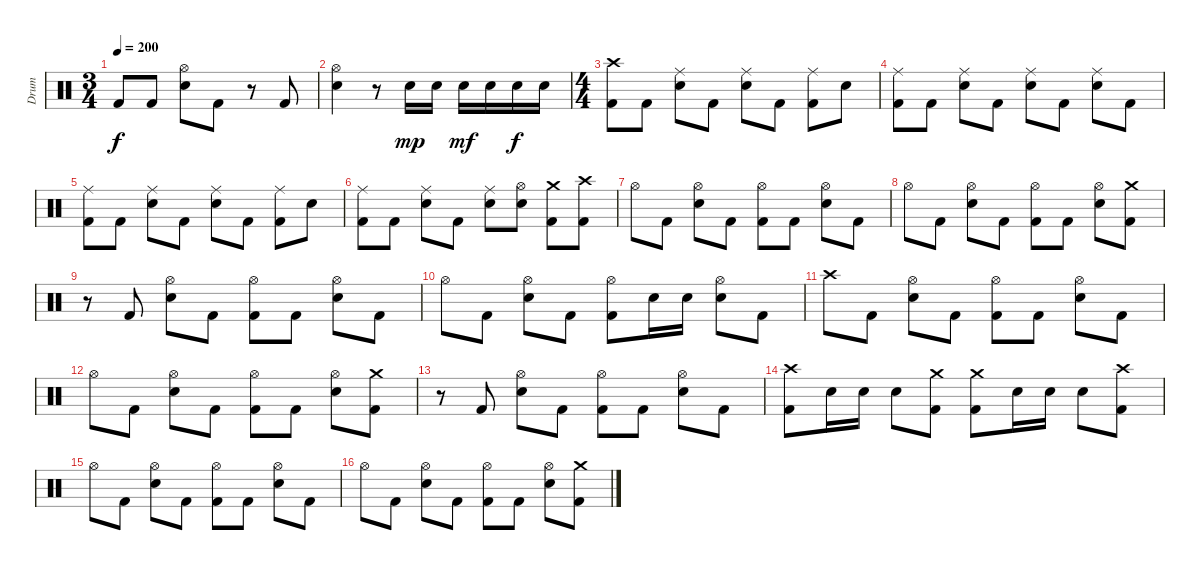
\track ("Drum" "Drum") {instrument percussion}
\staff {score}
\articulation defaults
\ts (3 4)
\tempo 200
\clef neutral
\ks c "Kick (hit) 2".8{dy f} "Kick (hit) 2".8
("Hi-Hat (open)" "Electric Snare (hit)").8 "Kick (hit) 2".8 r.8 "Kick (hit) 2".8 |
("Hi-Hat (open)" "Electric Snare (hit)").4 r.8 "Electric Snare (hit)".16{dy mp} "Electric Snare (hit)".16 "Electric Snare (hit)".16{dy mf} "Electric Snare (hit)".16 "Electric Snare (hit)".16{dy f} "Electric Snare (hit)".16 |
\ts (4 4)
("Crash high (hit)" "Kick (hit) 2").8 "Kick (hit) 2".8 ("Ride (middle)" "Electric Snare (hit)").8 "Kick (hit) 2".8 ("Ride (middle)" "Electric Snare (hit)").8 "Kick (hit) 2".8 ("Ride (middle)" "Kick (hit) 2").8 "Electric Snare (hit)".8 |
("Ride (middle)" "Kick (hit) 2").8 "Kick (hit) 2".8 ("Ride (middle)" "Electric Snare (hit)").8 "Kick (hit) 2".8 ("Ride (middle)" "Electric Snare (hit)").8 "Kick (hit) 2".8 ("Ride (middle)" "Electric Snare (hit)").8 "Kick (hit) 2".8 |
("Ride (middle)" "Kick (hit) 2").8 "Kick (hit) 2".8 ("Ride (middle)" "Electric Snare (hit)").8 "Kick (hit) 2".8 ("Ride (middle)" "Electric Snare (hit)").8 "Kick (hit) 2".8 ("Ride (middle)" "Kick (hit) 2").8 "Electric Snare (hit)".8 |
("Ride (middle)" "Kick (hit) 2").8 "Kick (hit) 2".8 ("Ride (middle)" "Electric Snare (hit)").8 "Kick (hit) 2".8 ("Ride (middle)" "Electric Snare (hit)").8 ("Hi-Hat (open)" "Electric Snare (hit)").8 ("Crash medium (hit)" "Kick (hit) 2").8 ("Crash high (hit)" "Kick (hit) 2").8 |
"Hi-Hat (open)".8 "Kick (hit) 2".8 ("Hi-Hat (open)" "Electric Snare (hit)").8 "Kick (hit) 2".8 ("Hi-Hat (open)" "Kick (hit) 2").8 "Kick (hit) 2".8 ("Hi-Hat (open)" "Electric Snare (hit)").8 "Kick (hit) 2".8 |
"Hi-Hat (open)".8 "Kick (hit) 2".8 ("Hi-Hat (open)" "Electric Snare (hit)").8 "Kick (hit) 2".8 ("Hi-Hat (open)" "Kick (hit) 2").8 "Kick (hit) 2".8 ("Hi-Hat (open)" "Electric Snare (hit)").8 ("Crash medium (hit)" "Kick (hit) 2").8 |
r.8 "Kick (hit) 2".8 ("Hi-Hat (open)" "Electric Snare (hit)").8 "Kick (hit) 2".8 ("Hi-Hat (open)" "Kick (hit) 2").8 "Kick (hit) 2".8 ("Hi-Hat (open)" "Electric Snare (hit)").8 "Kick (hit) 2".8 |
"Hi-Hat (open)".8 "Kick (hit) 2".8 ("Hi-Hat (open)" "Electric Snare (hit)").8 "Kick (hit) 2".8 ("Hi-Hat (open)" "Kick (hit) 2").8 "Electric Snare (hit)".16 "Electric Snare (hit)".16 ("Hi-Hat (open)" "Electric Snare (hit)").8 "Kick (hit) 2".8 |
"Crash high (hit)".8 "Kick (hit) 2".8 ("Hi-Hat (open)" "Electric Snare (hit)").8 "Kick (hit) 2".8 ("Hi-Hat (open)" "Kick (hit) 2").8 "Kick (hit) 2".8 ("Hi-Hat (open)" "Electric Snare (hit)").8 "Kick (hit) 2".8 |
"Hi-Hat (open)".8 "Kick (hit) 2".8 ("Hi-Hat (open)" "Electric Snare (hit)").8 "Kick (hit) 2".8 ("Hi-Hat (open)" "Kick (hit) 2").8 "Kick (hit) 2".8 ("Hi-Hat (open)" "Electric Snare (hit)").8 ("Crash medium (hit)" "Kick (hit) 2").8 |
r.8 "Kick (hit) 2".8 ("Hi-Hat (open)" "Electric Snare (hit)").8 "Kick (hit) 2".8 ("Hi-Hat (open)" "Kick (hit) 2").8 "Kick (hit) 2".8 ("Hi-Hat (open)" "Electric Snare (hit)").8 "Kick (hit) 2".8 |
("Crash high (hit)" "Kick (hit) 2").8 "Electric Snare (hit)".16 "Electric Snare (hit)".16 "Electric Snare (hit)".8 ("Crash medium (hit)" "Kick (hit) 2").8 ("Crash medium (hit)" "Kick (hit) 2").8 "Electric Snare (hit)".16 "Electric Snare (hit)".16 "Electric Snare (hit)".8 ("Crash high (hit)" "Kick (hit) 2").8 |
"Hi-Hat (open)".8 "Kick (hit) 2".8 ("Hi-Hat (open)" "Electric Snare (hit)").8 "Kick (hit) 2".8 ("Hi-Hat (open)" "Kick (hit) 2").8 "Kick (hit) 2".8 ("Hi-Hat (open)" "Electric Snare (hit)").8 "Kick (hit) 2".8 |
"Hi-Hat (open)".8 "Kick (hit) 2".8 ("Hi-Hat (open)" "Electric Snare (hit)").8 "Kick (hit) 2".8 ("Hi-Hat (open)" "Kick (hit) 2").8 "Kick (hit) 2".8 ("Hi-Hat (open)" "Electric Snare (hit)").8 ("Crash medium (hit)" "Kick (hit) 2").8
